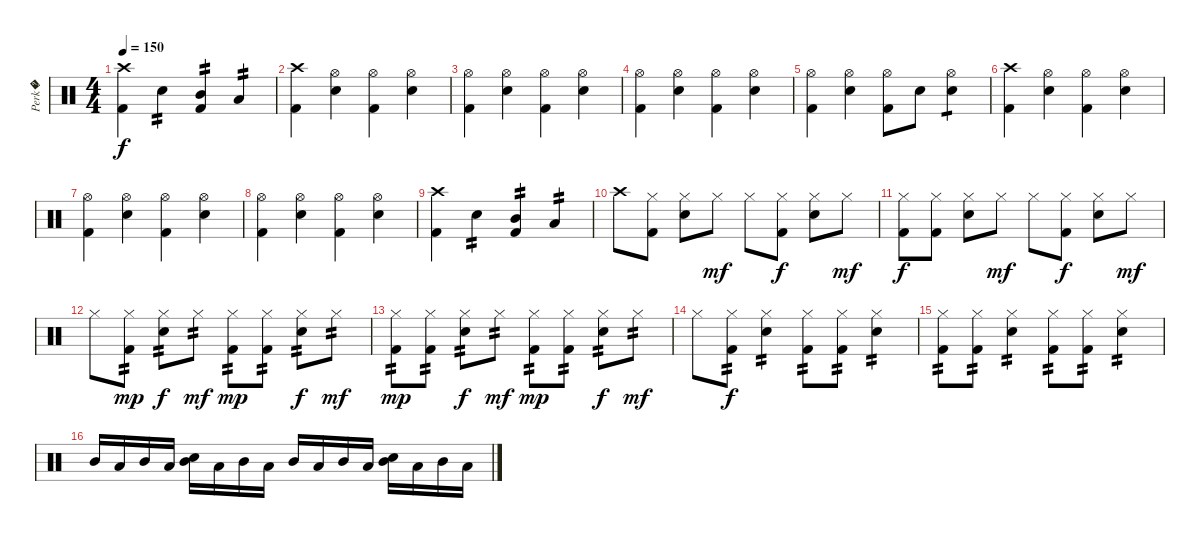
\track ("Perk�" "Perk�") {instrument percussion}
\staff {score}
\articulation defaults
\ts (4 4)
\tempo 150
\clef neutral
\ks c
("Crash high (hit)" "Kick (hit) 2").4{dy f} "Snare (hit) 2".4{tp 2} ("Mid Tom (hit)" "Kick (hit) 2").4{tp 2} "Low Tom (hit)".4{tp 2} |
("Crash high (hit)" "Kick (hit) 2").4 ("Hi-Hat (open)" "Snare (hit) 2").4 ("Hi-Hat (open)" "Kick (hit) 2").4 ("Hi-Hat (open)" "Snare (hit) 2").4 |
("Hi-Hat (open)" "Kick (hit) 2").4 ("Hi-Hat (open)" "Snare (hit) 2").4 ("Hi-Hat (open)" "Kick (hit) 2").4 ("Hi-Hat (open)" "Snare (hit) 2").4 |
("Hi-Hat (open)" "Kick (hit) 2").4 ("Hi-Hat (open)" "Snare (hit) 2").4 ("Hi-Hat (open)" "Kick (hit) 2").4 ("Hi-Hat (open)" "Snare (hit) 2").4 |
("Hi-Hat (open)" "Kick (hit) 2").4 ("Hi-Hat (open)" "Snare (hit) 2").4 ("Hi-Hat (open)" "Kick (hit) 2").8 "Snare (hit) 2".8 ("Hi-Hat (open)" "Snare (hit) 2").4{tp 1} |
("Crash high (hit)" "Kick (hit) 2").4 ("Hi-Hat (open)" "Snare (hit) 2").4 ("Hi-Hat (open)" "Kick (hit) 2").4 ("Hi-Hat (open)" "Snare (hit) 2").4 |
("Hi-Hat (open)" "Kick (hit) 2").4 ("Hi-Hat (open)" "Snare (hit) 2").4 ("Hi-Hat (open)" "Kick (hit) 2").4 ("Hi-Hat (open)" "Snare (hit) 2").4 |
("Hi-Hat (open)" "Kick (hit) 2").4 ("Hi-Hat (open)" "Snare (hit) 2").4 ("Hi-Hat (open)" "Kick (hit) 2").4 ("Hi-Hat (open)" "Snare (hit) 2").4 |
("Crash high (hit)" "Kick (hit) 2").4 "Snare (hit) 2".4{tp 2} ("Mid Tom (hit)" "Kick (hit) 2").4{tp 2} "Low Tom (hit)".4{tp 2} |
"Crash high (hit)".8 ("Hi-Hat (closed)" "Kick (hit) 2").8 ("Hi-Hat (closed)" "Snare (hit) 2").8 "Hi-Hat (closed)".8{dy mf} "Hi-Hat (closed)".8 ("Hi-Hat (closed)" "Kick (hit) 2").8{dy f} ("Hi-Hat (closed)" "Snare (hit) 2").8 "Hi-Hat (closed)".8{dy mf} |
("Hi-Hat (closed)" "Kick (hit) 2").8{dy f} ("Hi-Hat (closed)" "Kick (hit) 2").8 ("Hi-Hat (closed)" "Snare (hit) 2").8 "Hi-Hat (closed)".8{dy mf} "Hi-Hat (closed)".8 ("Hi-Hat (closed)" "Kick (hit) 2").8{dy f} ("Hi-Hat (closed)" "Snare (hit) 2").8 "Hi-Hat (closed)".8{dy mf} |
"Hi-Hat (closed)".8 ("Hi-Hat (closed)" "Kick (hit) 2").8{tp 2 dy mp} ("Hi-Hat (closed)" "Snare (hit) 2").8{tp 2 dy f} "Hi-Hat (closed)".8{tp 2 dy mf} ("Hi-Hat (closed)" "Kick (hit) 2").8{tp 2 dy mp} ("Hi-Hat (closed)" "Kick (hit) 2").8{tp 2} ("Hi-Hat (closed)" "Snare (hit) 2").8{tp 2 dy f} "Hi-Hat (closed)".8{tp 2 dy mf} |
("Hi-Hat (closed)" "Kick (hit) 2").8{tp 2 dy mp} ("Hi-Hat (closed)" "Kick (hit) 2").8{tp 2} ("Hi-Hat (closed)" "Snare (hit) 2").8{tp 2 dy f} "Hi-Hat (closed)".8{tp 2 dy mf} ("Hi-Hat (closed)" "Kick (hit) 2").8{tp 2 dy mp} ("Hi-Hat (closed)" "Kick (hit) 2").8{tp 2} ("Hi-Hat (closed)" "Snare (hit) 2").8{tp 2 dy f} "Hi-Hat (closed)".8{tp 2 dy mf} |
"Hi-Hat (closed)".8 ("Hi-Hat (closed)" "Kick (hit) 2").8{tp 2 dy f} ("Hi-Hat (closed)" "Snare (hit) 2").4{tp 2} ("Hi-Hat (closed)" "Kick (hit) 2").8{tp 2} ("Hi-Hat (closed)" "Kick (hit) 2").8{tp 2} ("Hi-Hat (closed)" "Snare (hit) 2").4{tp 2} |
("Hi-Hat (closed)" "Kick (hit) 2").8{tp 2} ("Hi-Hat (closed)" "Kick (hit) 2").8{tp 2} ("Hi-Hat (closed)" "Snare (hit) 2").4{tp 2} ("Hi-Hat (closed)" "Kick (hit) 2").8{tp 2} ("Hi-Hat (closed)" "Kick (hit) 2").8{tp 2} ("Hi-Hat (closed)" "Snare (hit) 2").4{tp 2} |
"Mid Tom (hit)".16 "Low Tom (hit)".16 "Mid Tom (hit)".16 "Low Tom (hit)".16 ("Mid Tom (hit)" "Snare (hit) 2").16 "Low Tom (hit)".16 "Mid Tom (hit)".16 "Low Tom (hit)".16 "Mid Tom (hit)".16 "Low Tom (hit)".16 "Mid Tom (hit)".16 "Low Tom (hit)".16 ("Mid Tom (hit)" "Snare (hit) 2").16 "Low Tom (hit)".16 "Mid Tom (hit)".16 "Low Tom (hit)".16
